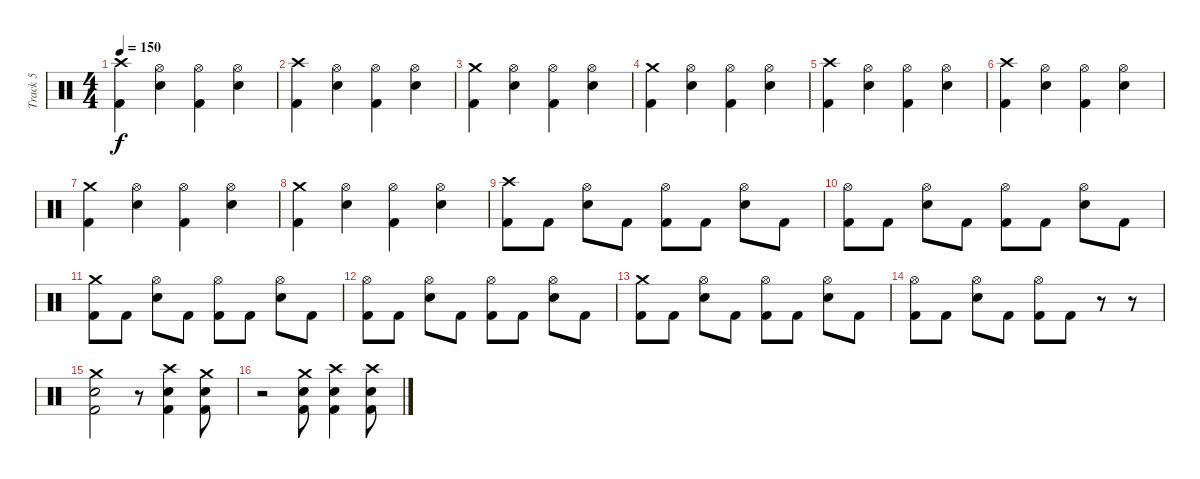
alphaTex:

\track ("Track 5" "Track 5") {instrument percussion}
\staff {score}
\articulation defaults
\ts (4 4)
\tempo 150
\clef neutral
\ks c
("Crash high (hit)" "Kick (hit) 2").4{dy f} ("Hi-Hat (open)" "Electric Snare (hit)").4 ("Hi-Hat (open)" "Kick (hit) 2").4 ("Hi-Hat (open)" "Electric Snare (hit)").4 |
("Crash high (hit)" "Kick (hit) 2").4 ("Hi-Hat (open)" "Electric Snare (hit)").4 ("Hi-Hat (open)" "Kick (hit) 2").4 ("Hi-Hat (open)" "Electric Snare (hit)").4 |
("Crash medium (hit)" "Kick (hit) 2").4 ("Hi-Hat (open)" "Electric Snare (hit)").4 ("Hi-Hat (open)" "Kick (hit) 2").4 ("Hi-Hat (open)" "Electric Snare (hit)").4 |
("Crash medium (hit)" "Kick (hit) 2").4 ("Hi-Hat (open)" "Electric Snare (hit)").4 ("Hi-Hat (open)" "Kick (hit) 2").4 ("Hi-Hat (open)" "Electric Snare (hit)").4 |
("Crash high (hit)" "Kick (hit) 2").4 ("Hi-Hat (open)" "Electric Snare (hit)").4 ("Hi-Hat (open)" "Kick (hit) 2").4 ("Hi-Hat (open)" "Electric Snare (hit)").4 |
("Crash high (hit)" "Kick (hit) 2").4 ("Hi-Hat (open)" "Electric Snare (hit)").4 ("Hi-Hat (open)" "Kick (hit) 2").4 ("Hi-Hat (open)" "Electric Snare (hit)").4 |
("Crash medium (hit)" "Kick (hit) 2").4 ("Hi-Hat (open)" "Electric Snare (hit)").4 ("Hi-Hat (open)" "Kick (hit) 2").4 ("Hi-Hat (open)" "Electric Snare (hit)").4 |
("Crash medium (hit)" "Kick (hit) 2").4 ("Hi-Hat (open)" "Electric Snare (hit)").4 ("Hi-Hat (open)" "Kick (hit) 2").4 ("Hi-Hat (open)" "Electric Snare (hit)").4 |
("Crash high (hit)" "Kick (hit) 2").8 "Kick (hit) 2".8 ("Hi-Hat (open)" "Electric Snare (hit)").8 "Kick (hit) 2".8 ("Hi-Hat (open)" "Kick (hit) 2").8 "Kick (hit) 2".8 ("Hi-Hat (open)" "Electric Snare (hit)").8 "Kick (hit) 2".8 |
("Hi-Hat (open)" "Kick (hit) 2").8 "Kick (hit) 2".8 ("Hi-Hat (open)" "Electric Snare (hit)").8 "Kick (hit) 2".8 ("Hi-Hat (open)" "Kick (hit) 2").8 "Kick (hit) 2".8 ("Hi-Hat (open)" "Electric Snare (hit)").8 "Kick (hit) 2".8 |
("Crash medium (hit)" "Kick (hit) 2").8 "Kick (hit) 2".8 ("Hi-Hat (open)" "Electric Snare (hit)").8 "Kick (hit) 2".8 ("Hi-Hat (open)" "Kick (hit) 2").8 "Kick (hit) 2".8 ("Hi-Hat (open)" "Electric Snare (hit)").8 "Kick (hit) 2".8 |
("Hi-Hat (open)" "Kick (hit) 2").8 "Kick (hit) 2".8 ("Hi-Hat (open)" "Electric Snare (hit)").8 "Kick (hit) 2".8 ("Hi-Hat (open)" "Kick (hit) 2").8 "Kick (hit) 2".8 ("Hi-Hat (open)" "Electric Snare (hit)").8 "Kick (hit) 2".8 |
("Crash medium (hit)" "Kick (hit) 2").8 "Kick (hit) 2".8 ("Hi-Hat (open)" "Electric Snare (hit)").8 "Kick (hit) 2".8 ("Hi-Hat (open)" "Kick (hit) 2").8 "Kick (hit) 2".8 ("Hi-Hat (open)" "Electric Snare (hit)").8 "Kick (hit) 2".8 |
("Hi-Hat (open)" "Kick (hit) 2").8 "Kick (hit) 2".8 ("Hi-Hat (open)" "Electric Snare (hit)").8 "Kick (hit) 2".8 ("Hi-Hat (open)" "Kick (hit) 2").8 "Kick (hit) 2".8 r.8 r.8 |
("Crash medium (hit)" "Electric Snare (hit)" "Kick (hit) 2").2 r.8 ("Crash high (hit)" "Electric Snare (hit)" "Kick (hit) 2").4 ("Crash medium (hit)" "Electric Snare (hit)" "Kick (hit) 2").8 |
r.2 ("Crash medium (hit)" "Electric Snare (hit)" "Kick (hit) 2").8 ("Crash high (hit)" "Electric Snare (hit)" "Kick (hit) 2").4 ("Crash high (hit)" "Electric Snare (hit)" "Kick (hit) 2").8
